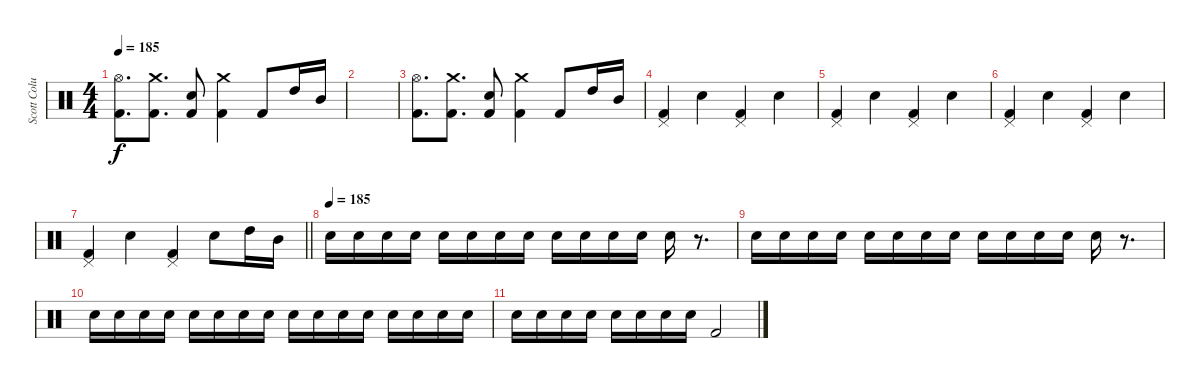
\track ("Scott Columbus" "Scott Colu") {instrument percussion}
\staff {score}
\articulation defaults
\ts (4 4)
\tempo 185
\clef neutral
\ks c
("Hi-Hat (open)" "Kick (hit) 2").8{d dy f} ("Crash medium (hit)" "Kick (hit) 2").8{d} ("Snare (hit) 2" "Kick (hit) 2").8 ("Crash medium (hit)" "Kick (hit) 2").4 "Kick (hit) 2".8 "High Tom (hit)".16 "Mid Tom (hit)".16 |
|
("Hi-Hat (open)" "Kick (hit) 2").8{d} ("Crash medium (hit)" "Kick (hit) 2").8{d} ("Snare (hit) 2" "Kick (hit) 2").8 ("Crash medium (hit)" "Kick (hit) 2").4 "Kick (hit) 2".8 "High Tom (hit)".16 "Mid Tom (hit)".16 |
("Pedal Hi-Hat (hit)" "Kick (hit) 2").4 "Snare (hit) 2".4 ("Pedal Hi-Hat (hit)" "Kick (hit) 2").4 "Snare (hit) 2".4 |
("Pedal Hi-Hat (hit)" "Kick (hit) 2").4 "Snare (hit) 2".4 ("Pedal Hi-Hat (hit)" "Kick (hit) 2").4 "Snare (hit) 2".4 |
("Pedal Hi-Hat (hit)" "Kick (hit) 2").4 "Snare (hit) 2".4 ("Pedal Hi-Hat (hit)" "Kick (hit) 2").4 "Snare (hit) 2".4 |
\barLineRight lightlight
("Pedal Hi-Hat (hit)" "Kick (hit) 2").4 "Snare (hit) 2".4 ("Pedal Hi-Hat (hit)" "Kick (hit) 2").4 "Snare (hit) 2".8 "High Tom (hit)".16 "Mid Tom (hit)".16 |
\tempo (185)
"Snare (hit) 2".16 "Snare (hit) 2".16 "Snare (hit) 2".16 "Snare (hit) 2".16 "Snare (hit) 2".16 "Snare (hit) 2".16 "Snare (hit) 2".16 "Snare (hit) 2".16 "Snare (hit) 2".16 "Snare (hit) 2".16 "Snare (hit) 2".16 "Snare (hit) 2".16 "Snare (hit) 2".16 r.8{d} |
"Snare (hit) 2".16 "Snare (hit) 2".16 "Snare (hit) 2".16 "Snare (hit) 2".16 "Snare (hit) 2".16 "Snare (hit) 2".16 "Snare (hit) 2".16 "Snare (hit) 2".16 "Snare (hit) 2".16 "Snare (hit) 2".16 "Snare (hit) 2".16 "Snare (hit) 2".16 "Snare (hit) 2".16 r.8{d} |
"Snare (hit) 2".16 "Snare (hit) 2".16 "Snare (hit) 2".16 "Snare (hit) 2".16 "Snare (hit) 2".16 "Snare (hit) 2".16 "Snare (hit) 2".16 "Snare (hit) 2".16 "Snare (hit) 2".16 "Snare (hit) 2".16 "Snare (hit) 2".16 "Snare (hit) 2".16 "Snare (hit) 2".16 "Snare (hit) 2".16 "Snare (hit) 2".16 "Snare (hit) 2".16 |
"Snare (hit) 2".16 "Snare (hit) 2".16 "Snare (hit) 2".16 "Snare (hit) 2".16 "Snare (hit) 2".16 "Snare (hit) 2".16 "Snare (hit) 2".16 "Snare (hit) 2".16 "Kick (hit) 2".2
